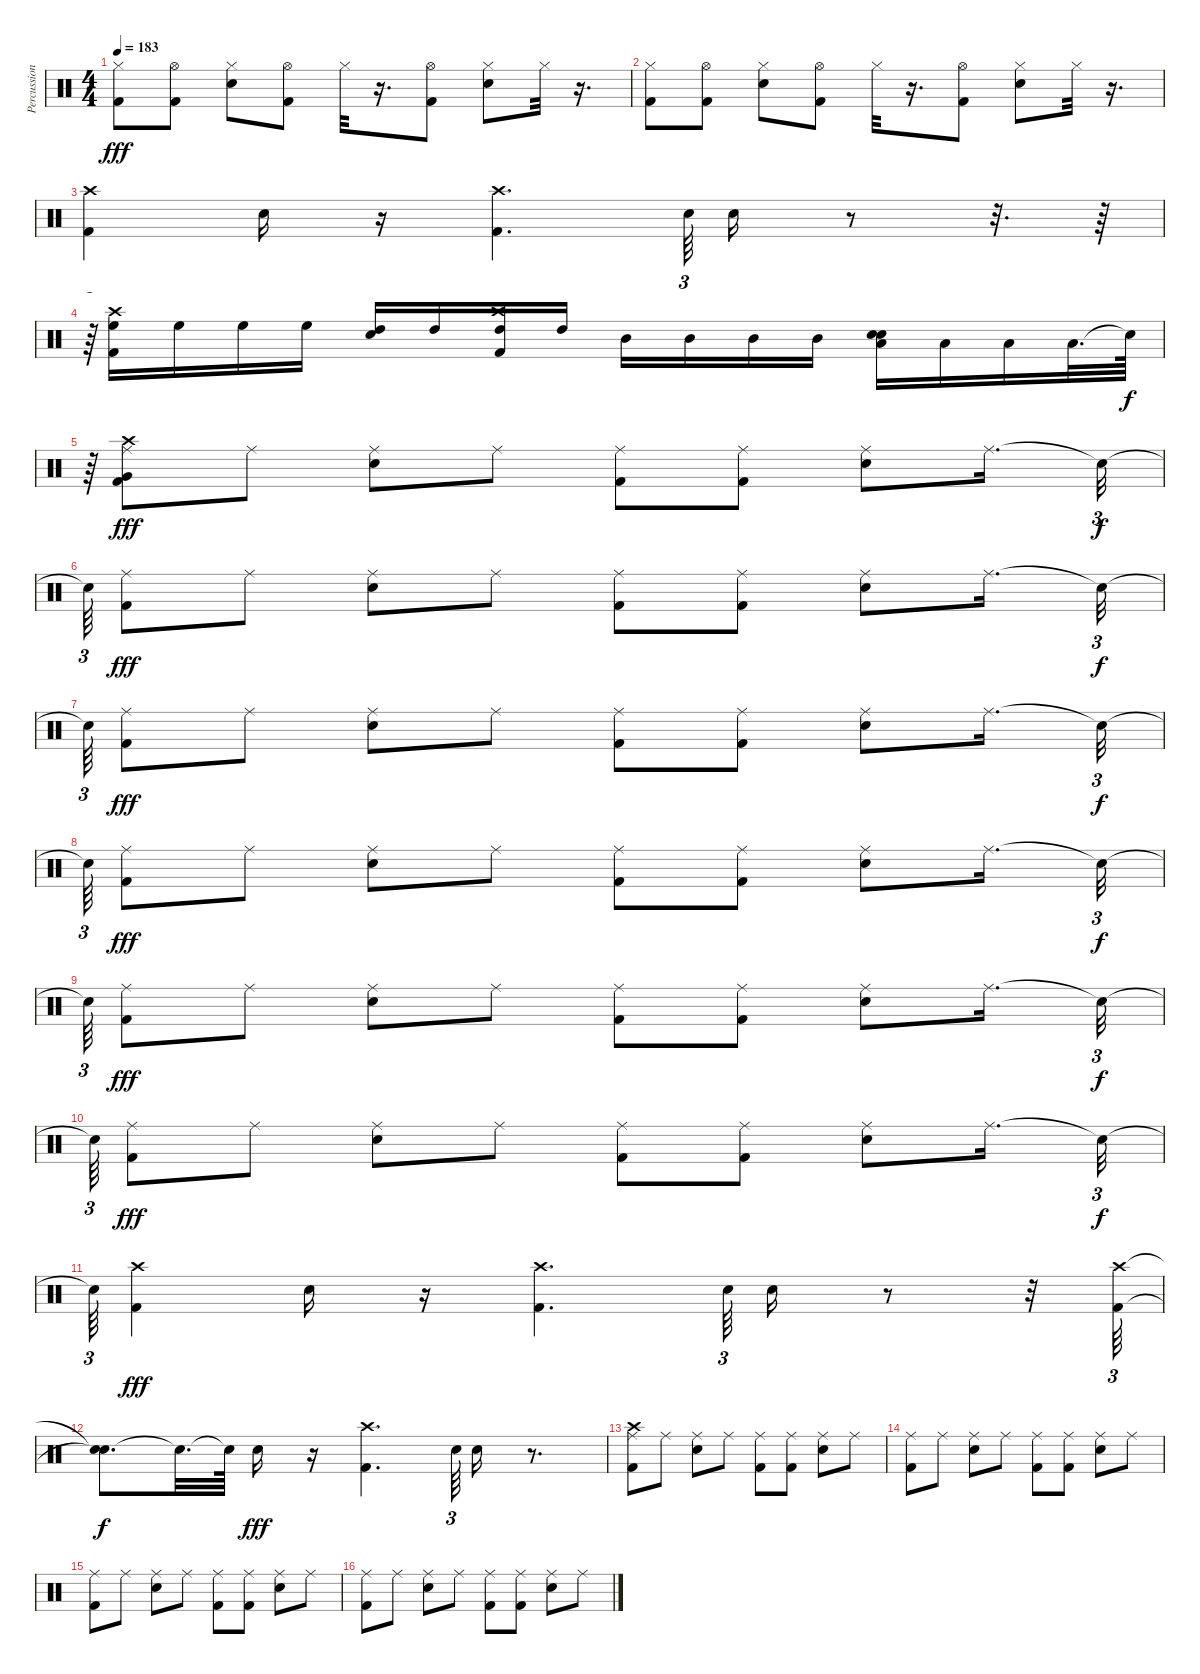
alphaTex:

\track ("Percussioni" "Percussion") {instrument percussion}
\staff {score}
\articulation defaults
\ts (4 4)
\tempo 183
\clef neutral
\ks c
("Hi-Hat (closed)" "Kick (hit) 2").8{dy fff} ("Hi-Hat (open)" "Kick (hit) 2").8 ("Hi-Hat (closed)" "Snare (hit) 2").8 ("Hi-Hat (open)" "Kick (hit) 2").8 "Hi-Hat (closed)".32 r.16{d} ("Hi-Hat (open)" "Kick (hit) 2").8 ("Hi-Hat (closed)" "Snare (hit) 2").8 "Hi-Hat (closed)".32 r.16{d} |
("Hi-Hat (closed)" "Kick (hit) 2").8 ("Hi-Hat (open)" "Kick (hit) 2").8 ("Hi-Hat (closed)" "Snare (hit) 2").8 ("Hi-Hat (open)" "Kick (hit) 2").8 "Hi-Hat (closed)".32 r.16{d} ("Hi-Hat (open)" "Kick (hit) 2").8 ("Hi-Hat (closed)" "Snare (hit) 2").8 "Hi-Hat (closed)".32 r.16{d} |
("Crash high (hit)" "Kick (hit) 2").4 "Snare (hit) 2".16 r.16 ("Crash high (hit)" "Kick (hit) 2").4{d} "Snare (hit) 2".64{tu (3 2)} "Snare (hit) 2".16 r.8 r.32{d} r.64 |
r.64{tu (3 2)} ("Crash high (hit)" "High Floor Tom (hit)" "Kick (hit) 2").16 "High Floor Tom (hit)".16 "High Floor Tom (hit)".16 "High Floor Tom (hit)".16 ("Snare (hit) 2" "High Tom (hit)").16 "High Tom (hit)".16 ("Crash high (hit)" "High Tom (hit)" "Kick (hit) 2").16 "High Tom (hit)".16 "Mid Tom (hit)".16 "Mid Tom (hit)".16 "Mid Tom (hit)".16 "Mid Tom (hit)".16 ("Snare (hit) 2" "Low Tom (hit)" "Snare (hit) 2").16 "Low Tom (hit)".16 "Low Tom (hit)".16 "Low Tom (hit)".32{d} "Snare (hit)"{t}.64{dy f} |
r.64{tu (3 2)} ("Crash high (hit)" "Ride (middle)" "Kick (hit) 2" "Very Low Tom (hit)").8{dy fff} "Ride (middle)".8 ("Ride (middle)" "Snare (hit) 2").8 "Ride (middle)".8 ("Ride (middle)" "Kick (hit) 2").8 ("Ride (middle)" "Kick (hit) 2").8 ("Ride (middle)" "Snare (hit) 2").8 "Ride (middle)".16{d} "Snare (hit)"{t}.32{tu (3 2) dy f} |
"Snare (hit)"{t}.64{tu (3 2)} ("Ride (middle)" "Kick (hit) 2").8{dy fff} "Ride (middle)".8 ("Ride (middle)" "Snare (hit) 2").8 "Ride (middle)".8 ("Ride (middle)" "Kick (hit) 2").8 ("Ride (middle)" "Kick (hit) 2").8 ("Ride (middle)" "Snare (hit) 2").8 "Ride (middle)".16{d} "Snare (hit)"{t}.32{tu (3 2) dy f} |
"Snare (hit)"{t}.64{tu (3 2)} ("Ride (middle)" "Kick (hit) 2").8{dy fff} "Ride (middle)".8 ("Ride (middle)" "Snare (hit) 2").8 "Ride (middle)".8 ("Ride (middle)" "Kick (hit) 2").8 ("Ride (middle)" "Kick (hit) 2").8 ("Ride (middle)" "Snare (hit) 2").8 "Ride (middle)".16{d} "Snare (hit)"{t}.32{tu (3 2) dy f} |
"Snare (hit)"{t}.64{tu (3 2)} ("Ride (middle)" "Kick (hit) 2").8{dy fff} "Ride (middle)".8 ("Ride (middle)" "Snare (hit) 2").8 "Ride (middle)".8 ("Ride (middle)" "Kick (hit) 2").8 ("Ride (middle)" "Kick (hit) 2").8 ("Ride (middle)" "Snare (hit) 2").8 "Ride (middle)".16{d} "Snare (hit)"{t}.32{tu (3 2) dy f} |
"Snare (hit)"{t}.64{tu (3 2)} ("Ride (middle)" "Kick (hit) 2").8{dy fff} "Ride (middle)".8 ("Ride (middle)" "Snare (hit) 2").8 "Ride (middle)".8 ("Ride (middle)" "Kick (hit) 2").8 ("Ride (middle)" "Kick (hit) 2").8 ("Ride (middle)" "Snare (hit) 2").8 "Ride (middle)".16{d} "Snare (hit)"{t}.32{tu (3 2) dy f} |
"Snare (hit)"{t}.64{tu (3 2)} ("Ride (middle)" "Kick (hit) 2").8{dy fff} "Ride (middle)".8 ("Ride (middle)" "Snare (hit) 2").8 "Ride (middle)".8 ("Ride (middle)" "Kick (hit) 2").8 ("Ride (middle)" "Kick (hit) 2").8 ("Ride (middle)" "Snare (hit) 2").8 "Ride (middle)".16{d} "Snare (hit)"{t}.32{tu (3 2) dy f} |
"Snare (hit)"{t}.64{tu (3 2)} ("Crash high (hit)" "Kick (hit) 2").4{dy fff} "Snare (hit) 2".16 r.16 ("Crash high (hit)" "Kick (hit) 2").4{d} "Snare (hit) 2".64{tu (3 2)} "Snare (hit) 2".16 r.8 r.32 ("Crash high (hit)" "Kick (hit) 2").64{tu (3 2)} |
("Snare (hit)"{t} "Snare (hit)"{t}).8{d dy f} "Snare (hit)"{t}.32{d} "Snare (hit)"{t}.64 "Snare (hit) 2".16{dy fff} r.16 ("Crash high (hit)" "Kick (hit) 2").4{d} "Snare (hit) 2".64{tu (3 2)} "Snare (hit) 2".16 r.8{d} |
("Crash high (hit)" "Ride (middle)" "Kick (hit) 2").8 "Ride (middle)".8 ("Ride (middle)" "Snare (hit) 2").8 "Ride (middle)".8 ("Ride (middle)" "Kick (hit) 2").8 ("Ride (middle)" "Kick (hit) 2").8 ("Ride (middle)" "Snare (hit) 2").8 "Ride (middle)".8 |
("Ride (middle)" "Kick (hit) 2").8 "Ride (middle)".8 ("Ride (middle)" "Snare (hit) 2").8 "Ride (middle)".8 ("Ride (middle)" "Kick (hit) 2").8 ("Ride (middle)" "Kick (hit) 2").8 ("Ride (middle)" "Snare (hit) 2").8 "Ride (middle)".8 |
("Ride (middle)" "Kick (hit) 2").8 "Ride (middle)".8 ("Ride (middle)" "Snare (hit) 2").8 "Ride (middle)".8 ("Ride (middle)" "Kick (hit) 2").8 ("Ride (middle)" "Kick (hit) 2").8 ("Ride (middle)" "Snare (hit) 2").8 "Ride (middle)".8 |
("Ride (middle)" "Kick (hit) 2").8 "Ride (middle)".8 ("Ride (middle)" "Snare (hit) 2").8 "Ride (middle)".8 ("Ride (middle)" "Kick (hit) 2").8 ("Ride (middle)" "Kick (hit) 2").8 ("Ride (middle)" "Snare (hit) 2").8 "Ride (middle)".8
